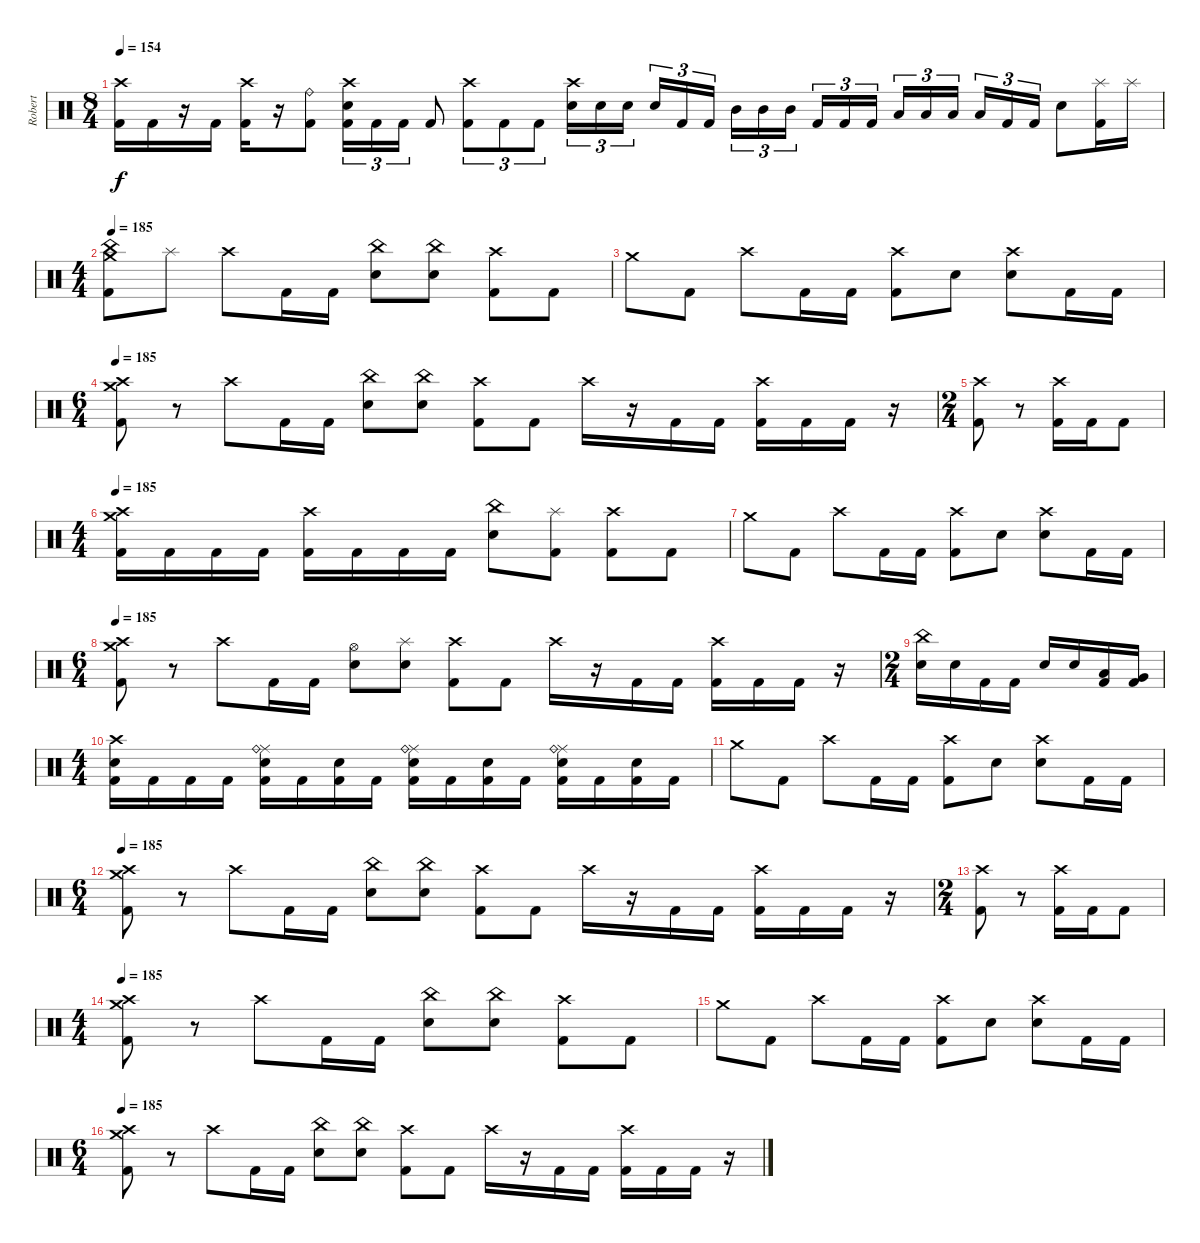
\track ("Robert" "Robert") {instrument percussion}
\staff {score}
\articulation defaults
\ts (8 4)
\tempo 154
\clef neutral
\ks c
("Crash high (hit)" "Kick (hit) 2").16{dy f} "Kick (hit) 2".16 r.16 "Kick (hit) 2".16 ("Crash high (hit)" "Kick (hit) 2").16 r.16 ("Ride (bell)" "Kick (hit) 2").8 ("Crash high (hit)" "Electric Snare (hit)" "Kick (hit) 2").16{tu (3 2)} "Kick (hit) 2".16{tu (3 2)} "Kick (hit) 2".16{tu (3 2)} "Kick (hit) 2".8 ("Crash high (hit)" "Kick (hit) 2").8{tu (3 2)} "Kick (hit) 2".8{tu (3 2)} "Kick (hit) 2".8{tu (3 2)} ("Crash high (hit)" "Electric Snare (hit)").16{tu (3 2)} "Electric Snare (hit)".16{tu (3 2)} "Electric Snare (hit)".16{tu (3 2) beam splitsecondary} "Electric Snare (hit)".16{tu (3 2)} "Kick (hit) 2".16{tu (3 2)} "Kick (hit) 2".16{tu (3 2)} "Mid Tom (hit)".16{tu (3 2)} "Mid Tom (hit)".16{tu (3 2)} "Mid Tom (hit)".16{tu (3 2) beam splitsecondary} "Kick (hit) 2".16{tu (3 2)} "Kick (hit) 2".16{tu (3 2)} "Kick (hit) 2".16{tu (3 2)} "Low Tom (hit)".16{tu (3 2)} "Low Tom (hit)".16{tu (3 2)} "Low Tom (hit)".16{tu (3 2) beam splitsecondary} "Low Tom (hit)".16{tu (3 2)} "Kick (hit) 2".16{tu (3 2)} "Kick (hit) 2".16{tu (3 2)} "Electric Snare (hit)".8 ("Kick (hit) 2" "Splash (hit)").16 "Splash (hit)".16 |
\ts (4 4)
\tempo 185
("China (hit)" "Kick (hit) 2" "Crash medium (hit)").8 "Splash (hit)".8 "Crash high (hit)".8 "Kick (hit) 2".16 "Kick (hit) 2".16 ("China (hit)" "Electric Snare (hit)").8 ("China (hit)" "Electric Snare (hit)").8 ("Kick (hit) 2" "Crash high (hit)").8 "Kick (hit) 2".8 |
"Crash medium (hit)".8 "Kick (hit) 2".8 "Crash high (hit)".8 "Kick (hit) 2".16 "Kick (hit) 2".16 ("Crash high (hit)" "Kick (hit) 2").8 "Electric Snare (hit)".8 ("Crash high (hit)" "Electric Snare (hit)").8 "Kick (hit) 2".16 "Kick (hit) 2".16 |
\ts (6 4)
\tempo 185
("Crash high (hit)" "Kick (hit) 2" "Crash medium (hit)").8 r.8 "Crash high (hit)".8 "Kick (hit) 2".16 "Kick (hit) 2".16 ("China (hit)" "Electric Snare (hit)").8 ("China (hit)" "Electric Snare (hit)").8 ("Kick (hit) 2" "Crash high (hit)").8 "Kick (hit) 2".8 "Crash high (hit)".16 r.16 "Kick (hit) 2".16 "Kick (hit) 2".16 ("Kick (hit) 2" "Crash high (hit)").16 "Kick (hit) 2".16 "Kick (hit) 2".16 r.16 |
\ts (2 4)
("Kick (hit) 2" "Crash high (hit)").8 r.8 ("Kick (hit) 2" "Crash high (hit)").16 "Kick (hit) 2".16 "Kick (hit) 2".8 |
\ts (4 4)
\tempo 185
("Crash high (hit)" "Kick (hit) 2" "Crash medium (hit)").16 "Kick (hit) 2".16 "Kick (hit) 2".16 "Kick (hit) 2".16 ("Kick (hit) 2" "Crash high (hit)").16 "Kick (hit) 2".16 "Kick (hit) 2".16 "Kick (hit) 2".16 ("China (hit)" "Electric Snare (hit)").8 ("Splash (hit)" "Kick (hit) 2").8 ("Kick (hit) 2" "Crash high (hit)").8 "Kick (hit) 2".8 |
"Crash medium (hit)".8 "Kick (hit) 2".8 "Crash high (hit)".8 "Kick (hit) 2".16 "Kick (hit) 2".16 ("Crash high (hit)" "Kick (hit) 2").8 "Electric Snare (hit)".8 ("Crash high (hit)" "Electric Snare (hit)").8 "Kick (hit) 2".16 "Kick (hit) 2".16 |
\ts (6 4)
\tempo 185
("Crash high (hit)" "Kick (hit) 2" "Crash medium (hit)").8 r.8 "Crash high (hit)".8 "Kick (hit) 2".16 "Kick (hit) 2".16 ("Hi-Hat (open)" "Electric Snare (hit)").8 ("Splash (hit)" "Electric Snare (hit)").8 ("Kick (hit) 2" "Crash high (hit)").8 "Kick (hit) 2".8 "Crash high (hit)".16 r.16 "Kick (hit) 2".16 "Kick (hit) 2".16 ("Kick (hit) 2" "Crash high (hit)").16 "Kick (hit) 2".16 "Kick (hit) 2".16 r.16 |
\ts (2 4)
("China (hit)" "Electric Snare (hit)").16 "Electric Snare (hit)".16 "Kick (hit) 2".16 "Kick (hit) 2".16 "Electric Snare (hit)".16 "Electric Snare (hit)".16 ("Low Tom (hit)" "Kick (hit) 2").16 ("Very Low Tom (hit)" "Kick (hit) 2").16 |
\ts (4 4)
("Crash high (hit)" "Electric Snare (hit)" "Kick (hit) 2").16 "Kick (hit) 2".16 "Kick (hit) 2".16 "Kick (hit) 2".16 ("Ride (middle)" "Electric Snare (hit)" "Ride (bell)" "Kick (hit) 2").16 "Kick (hit) 2".16 ("Electric Snare (hit)" "Kick (hit) 2").16 "Kick (hit) 2".16 ("Ride (middle)" "Electric Snare (hit)" "Ride (bell)" "Kick (hit) 2").16 "Kick (hit) 2".16 ("Electric Snare (hit)" "Kick (hit) 2").16 "Kick (hit) 2".16 ("Ride (middle)" "Ride (bell)" "Electric Snare (hit)" "Kick (hit) 2").16 "Kick (hit) 2".16 ("Electric Snare (hit)" "Kick (hit) 2").16 "Kick (hit) 2".16 |
"Crash medium (hit)".8 "Kick (hit) 2".8 "Crash high (hit)".8 "Kick (hit) 2".16 "Kick (hit) 2".16 ("Crash high (hit)" "Kick (hit) 2").8 "Electric Snare (hit)".8 ("Crash high (hit)" "Electric Snare (hit)").8 "Kick (hit) 2".16 "Kick (hit) 2".16 |
\ts (6 4)
\tempo 185
("Crash high (hit)" "Kick (hit) 2" "Crash medium (hit)").8 r.8 "Crash high (hit)".8 "Kick (hit) 2".16 "Kick (hit) 2".16 ("China (hit)" "Electric Snare (hit)").8 ("China (hit)" "Electric Snare (hit)").8 ("Kick (hit) 2" "Crash high (hit)").8 "Kick (hit) 2".8 "Crash high (hit)".16 r.16 "Kick (hit) 2".16 "Kick (hit) 2".16 ("Kick (hit) 2" "Crash high (hit)").16 "Kick (hit) 2".16 "Kick (hit) 2".16 r.16 |
\ts (2 4)
("Kick (hit) 2" "Crash high (hit)").8 r.8 ("Kick (hit) 2" "Crash high (hit)").16 "Kick (hit) 2".16 "Kick (hit) 2".8 |
\ts (4 4)
\tempo 185
("Crash high (hit)" "Kick (hit) 2" "Crash medium (hit)").8 r.8 "Crash high (hit)".8 "Kick (hit) 2".16 "Kick (hit) 2".16 ("China (hit)" "Electric Snare (hit)").8 ("China (hit)" "Electric Snare (hit)").8 ("Kick (hit) 2" "Crash high (hit)").8 "Kick (hit) 2".8 |
"Crash medium (hit)".8 "Kick (hit) 2".8 "Crash high (hit)".8 "Kick (hit) 2".16 "Kick (hit) 2".16 ("Crash high (hit)" "Kick (hit) 2").8 "Electric Snare (hit)".8 ("Crash high (hit)" "Electric Snare (hit)").8 "Kick (hit) 2".16 "Kick (hit) 2".16 |
\ts (6 4)
\tempo 185
("Crash high (hit)" "Kick (hit) 2" "Crash medium (hit)").8 r.8 "Crash high (hit)".8 "Kick (hit) 2".16 "Kick (hit) 2".16 ("China (hit)" "Electric Snare (hit)").8 ("China (hit)" "Electric Snare (hit)").8 ("Kick (hit) 2" "Crash high (hit)").8 "Kick (hit) 2".8 "Crash high (hit)".16 r.16 "Kick (hit) 2".16 "Kick (hit) 2".16 ("Kick (hit) 2" "Crash high (hit)").16 "Kick (hit) 2".16 "Kick (hit) 2".16 r.16
